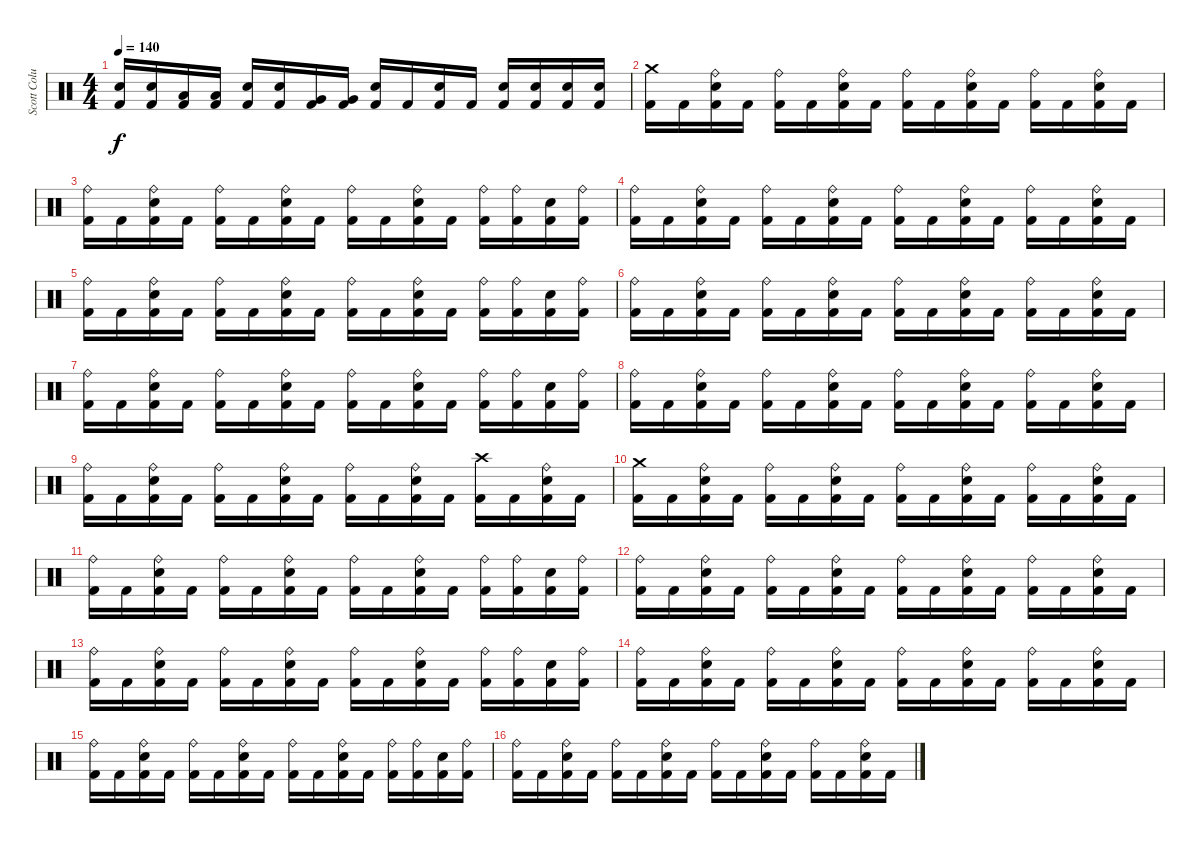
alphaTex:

\track ("Scott Columbus(Drums)" "Scott Colu") {instrument percussion}
\staff {score}
\articulation defaults
\ts (4 4)
\tempo 140
\clef neutral
\ks c
("Snare (hit) 2" "Kick (hit) 2").16{dy f} ("Snare (hit) 2" "Kick (hit) 2").16 ("Low Tom (hit)" "Kick (hit) 2").16 ("Low Tom (hit)" "Kick (hit) 2").16 ("Snare (hit) 2" "Kick (hit) 2").16 ("Snare (hit) 2" "Kick (hit) 2").16 ("Very Low Tom (hit)" "Kick (hit) 2").16 ("Very Low Tom (hit)" "Kick (hit) 2").16 ("Snare (hit) 2" "Kick (hit) 2").16 "Kick (hit) 2".16 ("Snare (hit) 2" "Kick (hit) 2").16 "Kick (hit) 2".16 ("Snare (hit) 2" "Kick (hit) 2").16 ("Snare (hit) 2" "Kick (hit) 2").16 ("Snare (hit) 2" "Kick (hit) 2").16 ("Snare (hit) 2" "Kick (hit) 2").16 |
("Crash medium (hit)" "Kick (hit) 2").16 "Kick (hit) 2".16 ("Ride (bell)" "Snare (hit) 2" "Kick (hit) 2").16 "Kick (hit) 2".16 ("Ride (bell)" "Kick (hit) 2").16 "Kick (hit) 2".16 ("Ride (bell)" "Snare (hit) 2" "Kick (hit) 2").16 "Kick (hit) 2".16 ("Ride (bell)" "Kick (hit) 2").16 "Kick (hit) 2".16 ("Ride (bell)" "Snare (hit) 2" "Kick (hit) 2").16 "Kick (hit) 2".16 ("Ride (bell)" "Kick (hit) 2").16 "Kick (hit) 2".16 ("Ride (bell)" "Snare (hit) 2" "Kick (hit) 2").16 "Kick (hit) 2".16 |
("Ride (bell)" "Kick (hit) 2").16 "Kick (hit) 2".16 ("Ride (bell)" "Snare (hit) 2" "Kick (hit) 2").16 "Kick (hit) 2".16 ("Ride (bell)" "Kick (hit) 2").16 "Kick (hit) 2".16 ("Ride (bell)" "Snare (hit) 2" "Kick (hit) 2").16 "Kick (hit) 2".16 ("Ride (bell)" "Kick (hit) 2").16 "Kick (hit) 2".16 ("Ride (bell)" "Snare (hit) 2" "Kick (hit) 2").16 "Kick (hit) 2".16 ("Ride (bell)" "Kick (hit) 2").16 ("Ride (bell)" "Kick (hit) 2").16 ("Snare (hit) 2" "Kick (hit) 2").16 ("Ride (bell)" "Kick (hit) 2").16 |
("Ride (bell)" "Kick (hit) 2").16 "Kick (hit) 2".16 ("Ride (bell)" "Snare (hit) 2" "Kick (hit) 2").16 "Kick (hit) 2".16 ("Ride (bell)" "Kick (hit) 2").16 "Kick (hit) 2".16 ("Ride (bell)" "Snare (hit) 2" "Kick (hit) 2").16 "Kick (hit) 2".16 ("Ride (bell)" "Kick (hit) 2").16 "Kick (hit) 2".16 ("Ride (bell)" "Snare (hit) 2" "Kick (hit) 2").16 "Kick (hit) 2".16 ("Ride (bell)" "Kick (hit) 2").16 "Kick (hit) 2".16 ("Ride (bell)" "Snare (hit) 2" "Kick (hit) 2").16 "Kick (hit) 2".16 |
("Ride (bell)" "Kick (hit) 2").16 "Kick (hit) 2".16 ("Ride (bell)" "Snare (hit) 2" "Kick (hit) 2").16 "Kick (hit) 2".16 ("Ride (bell)" "Kick (hit) 2").16 "Kick (hit) 2".16 ("Ride (bell)" "Snare (hit) 2" "Kick (hit) 2").16 "Kick (hit) 2".16 ("Ride (bell)" "Kick (hit) 2").16 "Kick (hit) 2".16 ("Ride (bell)" "Snare (hit) 2" "Kick (hit) 2").16 "Kick (hit) 2".16 ("Ride (bell)" "Kick (hit) 2").16 ("Ride (bell)" "Kick (hit) 2").16 ("Snare (hit) 2" "Kick (hit) 2").16 ("Ride (bell)" "Kick (hit) 2").16 |
("Ride (bell)" "Kick (hit) 2").16 "Kick (hit) 2".16 ("Ride (bell)" "Snare (hit) 2" "Kick (hit) 2").16 "Kick (hit) 2".16 ("Ride (bell)" "Kick (hit) 2").16 "Kick (hit) 2".16 ("Ride (bell)" "Snare (hit) 2" "Kick (hit) 2").16 "Kick (hit) 2".16 ("Ride (bell)" "Kick (hit) 2").16 "Kick (hit) 2".16 ("Ride (bell)" "Snare (hit) 2" "Kick (hit) 2").16 "Kick (hit) 2".16 ("Ride (bell)" "Kick (hit) 2").16 "Kick (hit) 2".16 ("Ride (bell)" "Snare (hit) 2" "Kick (hit) 2").16 "Kick (hit) 2".16 |
("Ride (bell)" "Kick (hit) 2").16 "Kick (hit) 2".16 ("Ride (bell)" "Snare (hit) 2" "Kick (hit) 2").16 "Kick (hit) 2".16 ("Ride (bell)" "Kick (hit) 2").16 "Kick (hit) 2".16 ("Ride (bell)" "Snare (hit) 2" "Kick (hit) 2").16 "Kick (hit) 2".16 ("Ride (bell)" "Kick (hit) 2").16 "Kick (hit) 2".16 ("Ride (bell)" "Snare (hit) 2" "Kick (hit) 2").16 "Kick (hit) 2".16 ("Ride (bell)" "Kick (hit) 2").16 ("Ride (bell)" "Kick (hit) 2").16 ("Snare (hit) 2" "Kick (hit) 2").16 ("Ride (bell)" "Kick (hit) 2").16 |
("Ride (bell)" "Kick (hit) 2").16 "Kick (hit) 2".16 ("Ride (bell)" "Snare (hit) 2" "Kick (hit) 2").16 "Kick (hit) 2".16 ("Ride (bell)" "Kick (hit) 2").16 "Kick (hit) 2".16 ("Ride (bell)" "Snare (hit) 2" "Kick (hit) 2").16 "Kick (hit) 2".16 ("Ride (bell)" "Kick (hit) 2").16 "Kick (hit) 2".16 ("Ride (bell)" "Snare (hit) 2" "Kick (hit) 2").16 "Kick (hit) 2".16 ("Ride (bell)" "Kick (hit) 2").16 "Kick (hit) 2".16 ("Ride (bell)" "Snare (hit) 2" "Kick (hit) 2").16 "Kick (hit) 2".16 |
("Ride (bell)" "Kick (hit) 2").16 "Kick (hit) 2".16 ("Ride (bell)" "Snare (hit) 2" "Kick (hit) 2").16 "Kick (hit) 2".16 ("Ride (bell)" "Kick (hit) 2").16 "Kick (hit) 2".16 ("Ride (bell)" "Snare (hit) 2" "Kick (hit) 2").16 "Kick (hit) 2".16 ("Ride (bell)" "Kick (hit) 2").16 "Kick (hit) 2".16 ("Ride (bell)" "Snare (hit) 2" "Kick (hit) 2").16 "Kick (hit) 2".16 ("Crash high (hit)" "Kick (hit) 2").16 "Kick (hit) 2".16 ("Ride (bell)" "Snare (hit) 2" "Kick (hit) 2").16 "Kick (hit) 2".16 |
("Crash medium (hit)" "Kick (hit) 2").16 "Kick (hit) 2".16 ("Ride (bell)" "Snare (hit) 2" "Kick (hit) 2").16 "Kick (hit) 2".16 ("Ride (bell)" "Kick (hit) 2").16 "Kick (hit) 2".16 ("Ride (bell)" "Snare (hit) 2" "Kick (hit) 2").16 "Kick (hit) 2".16 ("Ride (bell)" "Kick (hit) 2").16 "Kick (hit) 2".16 ("Ride (bell)" "Snare (hit) 2" "Kick (hit) 2").16 "Kick (hit) 2".16 ("Ride (bell)" "Kick (hit) 2").16 "Kick (hit) 2".16 ("Ride (bell)" "Snare (hit) 2" "Kick (hit) 2").16 "Kick (hit) 2".16 |
("Ride (bell)" "Kick (hit) 2").16 "Kick (hit) 2".16 ("Ride (bell)" "Snare (hit) 2" "Kick (hit) 2").16 "Kick (hit) 2".16 ("Ride (bell)" "Kick (hit) 2").16 "Kick (hit) 2".16 ("Ride (bell)" "Snare (hit) 2" "Kick (hit) 2").16 "Kick (hit) 2".16 ("Ride (bell)" "Kick (hit) 2").16 "Kick (hit) 2".16 ("Ride (bell)" "Snare (hit) 2" "Kick (hit) 2").16 "Kick (hit) 2".16 ("Ride (bell)" "Kick (hit) 2").16 ("Ride (bell)" "Kick (hit) 2").16 ("Snare (hit) 2" "Kick (hit) 2").16 ("Ride (bell)" "Kick (hit) 2").16 |
("Ride (bell)" "Kick (hit) 2").16 "Kick (hit) 2".16 ("Ride (bell)" "Snare (hit) 2" "Kick (hit) 2").16 "Kick (hit) 2".16 ("Ride (bell)" "Kick (hit) 2").16 "Kick (hit) 2".16 ("Ride (bell)" "Snare (hit) 2" "Kick (hit) 2").16 "Kick (hit) 2".16 ("Ride (bell)" "Kick (hit) 2").16 "Kick (hit) 2".16 ("Ride (bell)" "Snare (hit) 2" "Kick (hit) 2").16 "Kick (hit) 2".16 ("Ride (bell)" "Kick (hit) 2").16 "Kick (hit) 2".16 ("Ride (bell)" "Snare (hit) 2" "Kick (hit) 2").16 "Kick (hit) 2".16 |
("Ride (bell)" "Kick (hit) 2").16 "Kick (hit) 2".16 ("Ride (bell)" "Snare (hit) 2" "Kick (hit) 2").16 "Kick (hit) 2".16 ("Ride (bell)" "Kick (hit) 2").16 "Kick (hit) 2".16 ("Ride (bell)" "Snare (hit) 2" "Kick (hit) 2").16 "Kick (hit) 2".16 ("Ride (bell)" "Kick (hit) 2").16 "Kick (hit) 2".16 ("Ride (bell)" "Snare (hit) 2" "Kick (hit) 2").16 "Kick (hit) 2".16 ("Ride (bell)" "Kick (hit) 2").16 ("Ride (bell)" "Kick (hit) 2").16 ("Snare (hit) 2" "Kick (hit) 2").16 ("Ride (bell)" "Kick (hit) 2").16 |
("Ride (bell)" "Kick (hit) 2").16 "Kick (hit) 2".16 ("Ride (bell)" "Snare (hit) 2" "Kick (hit) 2").16 "Kick (hit) 2".16 ("Ride (bell)" "Kick (hit) 2").16 "Kick (hit) 2".16 ("Ride (bell)" "Snare (hit) 2" "Kick (hit) 2").16 "Kick (hit) 2".16 ("Ride (bell)" "Kick (hit) 2").16 "Kick (hit) 2".16 ("Ride (bell)" "Snare (hit) 2" "Kick (hit) 2").16 "Kick (hit) 2".16 ("Ride (bell)" "Kick (hit) 2").16 "Kick (hit) 2".16 ("Ride (bell)" "Snare (hit) 2" "Kick (hit) 2").16 "Kick (hit) 2".16 |
("Ride (bell)" "Kick (hit) 2").16 "Kick (hit) 2".16 ("Ride (bell)" "Snare (hit) 2" "Kick (hit) 2").16 "Kick (hit) 2".16 ("Ride (bell)" "Kick (hit) 2").16 "Kick (hit) 2".16 ("Ride (bell)" "Snare (hit) 2" "Kick (hit) 2").16 "Kick (hit) 2".16 ("Ride (bell)" "Kick (hit) 2").16 "Kick (hit) 2".16 ("Ride (bell)" "Snare (hit) 2" "Kick (hit) 2").16 "Kick (hit) 2".16 ("Ride (bell)" "Kick (hit) 2").16 ("Ride (bell)" "Kick (hit) 2").16 ("Snare (hit) 2" "Kick (hit) 2").16 ("Ride (bell)" "Kick (hit) 2").16 |
("Ride (bell)" "Kick (hit) 2").16 "Kick (hit) 2".16 ("Ride (bell)" "Snare (hit) 2" "Kick (hit) 2").16 "Kick (hit) 2".16 ("Ride (bell)" "Kick (hit) 2").16 "Kick (hit) 2".16 ("Ride (bell)" "Snare (hit) 2" "Kick (hit) 2").16 "Kick (hit) 2".16 ("Ride (bell)" "Kick (hit) 2").16 "Kick (hit) 2".16 ("Ride (bell)" "Snare (hit) 2" "Kick (hit) 2").16 "Kick (hit) 2".16 ("Ride (bell)" "Kick (hit) 2").16 "Kick (hit) 2".16 ("Ride (bell)" "Snare (hit) 2" "Kick (hit) 2").16 "Kick (hit) 2".16
